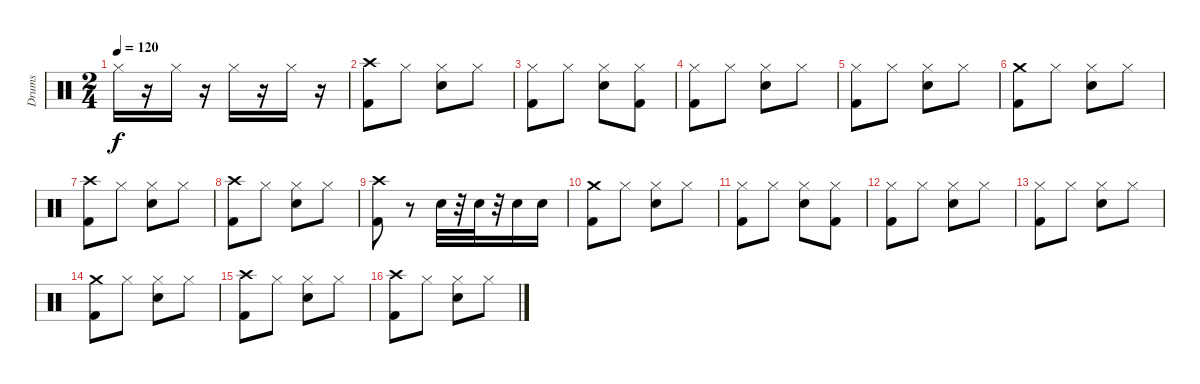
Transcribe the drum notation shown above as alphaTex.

\track ("Drums" "Drums") {instrument percussion}
\staff {score}
\articulation defaults
\ts (2 4)
\tempo 120
\clef neutral
\ks c "Hi-Hat (closed)".16{dy f}
r.16 "Hi-Hat (closed)".16 r.16 "Hi-Hat (closed)".16 r.16 "Hi-Hat (closed)".16 r.16 |
("Crash high (hit)" "Kick (hit) 2").8 "Hi-Hat (closed)".8 ("Snare (hit) 2" "Hi-Hat (closed)").8 "Hi-Hat (closed)".8 |
("Hi-Hat (closed)" "Kick (hit) 2").8 "Hi-Hat (closed)".8 ("Snare (hit) 2" "Hi-Hat (closed)").8 ("Kick (hit) 2" "Hi-Hat (closed)").8 |
("Kick (hit) 2" "Hi-Hat (closed)").8 "Hi-Hat (closed)".8 ("Snare (hit) 2" "Hi-Hat (closed)").8 "Hi-Hat (closed)".8 |
("Kick (hit) 2" "Hi-Hat (closed)").8 "Hi-Hat (closed)".8 ("Snare (hit) 2" "Hi-Hat (closed)").8 "Hi-Hat (closed)".8 |
("Crash medium (hit)" "Kick (hit) 2").8 "Hi-Hat (closed)".8 ("Snare (hit) 2" "Hi-Hat (closed)").8 "Hi-Hat (closed)".8 |
("Crash high (hit)" "Kick (hit) 2").8 "Hi-Hat (closed)".8 ("Snare (hit) 2" "Hi-Hat (closed)").8 "Hi-Hat (closed)".8 |
("Crash high (hit)" "Kick (hit) 2").8 "Hi-Hat (closed)".8 ("Snare (hit) 2" "Hi-Hat (closed)").8 "Hi-Hat (closed)".8 |
("Crash high (hit)" "Kick (hit) 2").8 r.8 "Snare (hit) 2".32 r.32 "Snare (hit) 2".32 r.32 "Snare (hit) 2".16 "Snare (hit) 2".16 |
("Crash medium (hit)" "Kick (hit) 2").8 "Hi-Hat (closed)".8 ("Snare (hit) 2" "Hi-Hat (closed)").8 "Hi-Hat (closed)".8 |
("Hi-Hat (closed)" "Kick (hit) 2").8 "Hi-Hat (closed)".8 ("Snare (hit) 2" "Hi-Hat (closed)").8 ("Kick (hit) 2" "Hi-Hat (closed)").8 |
("Kick (hit) 2" "Hi-Hat (closed)").8 "Hi-Hat (closed)".8 ("Snare (hit) 2" "Hi-Hat (closed)").8 "Hi-Hat (closed)".8 |
("Kick (hit) 2" "Hi-Hat (closed)").8 "Hi-Hat (closed)".8 ("Snare (hit) 2" "Hi-Hat (closed)").8 "Hi-Hat (closed)".8 |
("Crash medium (hit)" "Kick (hit) 2").8 "Hi-Hat (closed)".8 ("Snare (hit) 2" "Hi-Hat (closed)").8 "Hi-Hat (closed)".8 |
("Crash high (hit)" "Kick (hit) 2").8 "Hi-Hat (closed)".8 ("Snare (hit) 2" "Hi-Hat (closed)").8 "Hi-Hat (closed)".8 |
("Crash high (hit)" "Kick (hit) 2").8 "Hi-Hat (closed)".8 ("Snare (hit) 2" "Hi-Hat (closed)").8 "Hi-Hat (closed)".8
